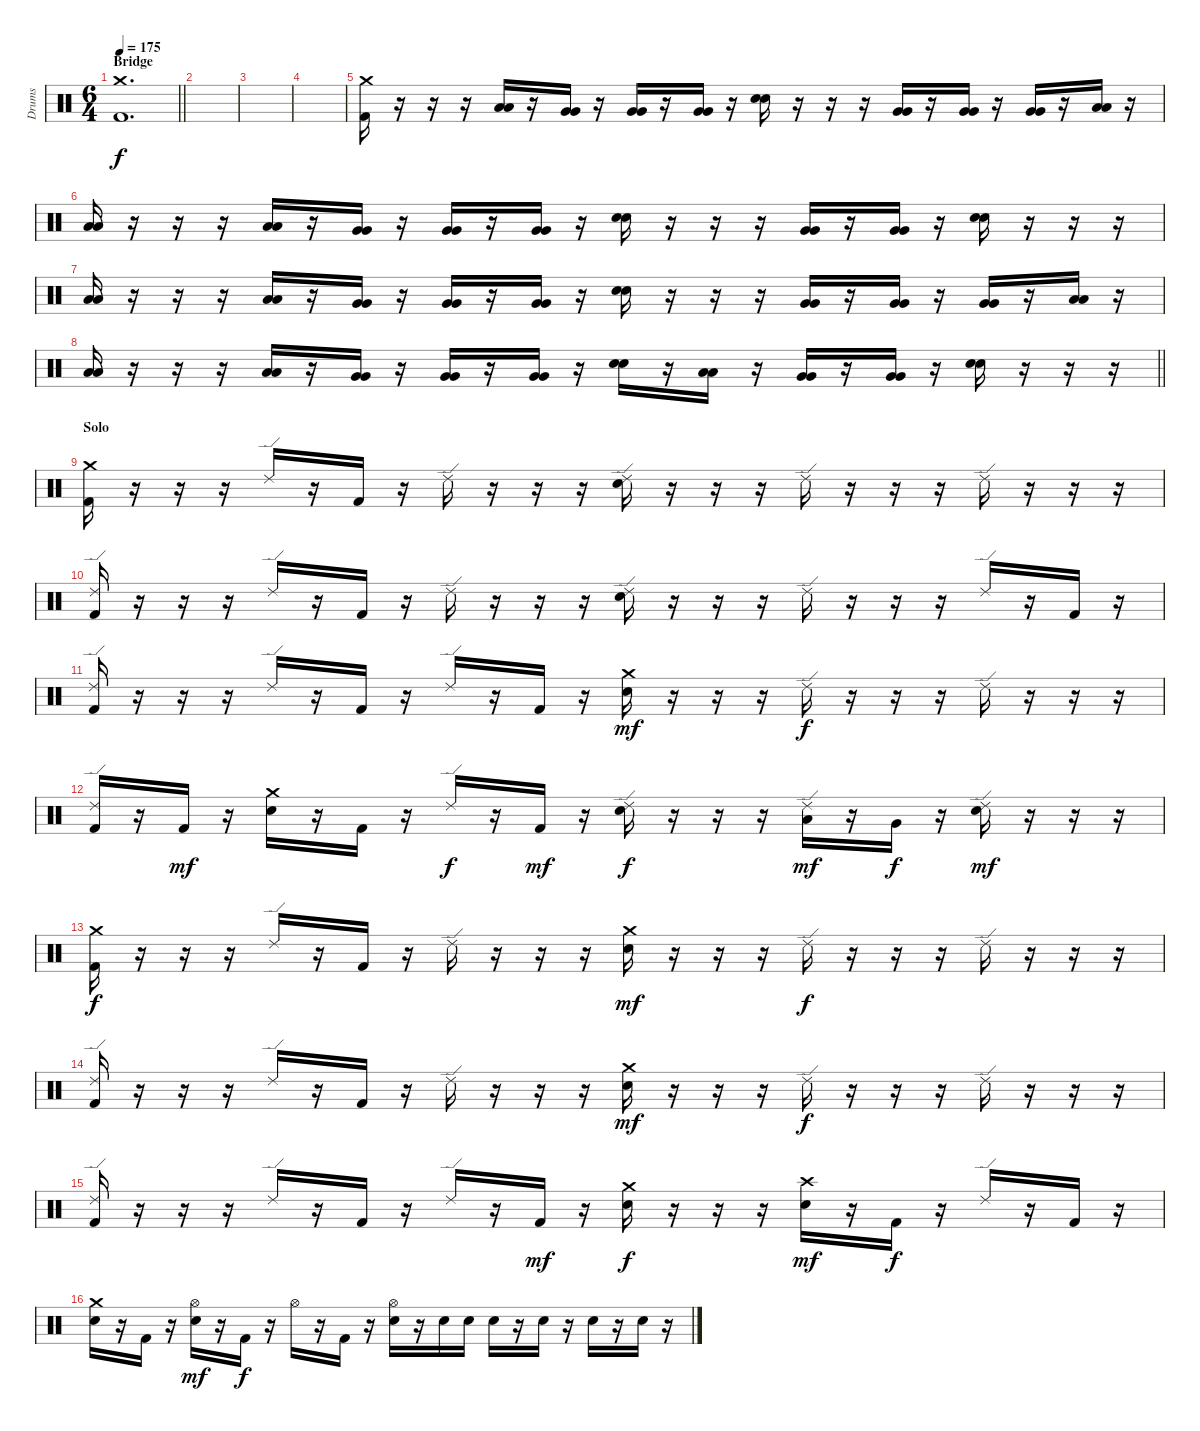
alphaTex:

\track ("Drums" "Drums") {instrument percussion}
\staff {score}
\articulation defaults
\ts (6 4)
\section ("" "Bridge")
\tempo 175
\clef neutral
\barLineRight lightlight
\ks c
("Crash medium (hit)" "Kick (hit) 2").1{d dy f} |
|
|
|
("Crash medium (hit)" "Kick (hit) 2").16 r.16 r.16 r.16 ("Low Tom (hit)" "Low Tom (hit)").16 r.16 ("Very Low Tom (hit)" "Very Low Tom (hit)").16 r.16 ("Very Low Tom (hit)" "Very Low Tom (hit)").16 r.16 ("Very Low Tom (hit)" "Very Low Tom (hit)").16 r.16 ("Electric Snare (hit)" "Electric Snare (hit)").16 r.16 r.16 r.16 ("Very Low Tom (hit)" "Very Low Tom (hit)").16 r.16 ("Very Low Tom (hit)" "Very Low Tom (hit)").16 r.16 ("Very Low Tom (hit)" "Very Low Tom (hit)").16 r.16 ("Low Tom (hit)" "Low Tom (hit)").16 r.16 |
("Low Tom (hit)" "Low Tom (hit)").16 r.16 r.16 r.16 ("Low Tom (hit)" "Low Tom (hit)").16 r.16 ("Very Low Tom (hit)" "Very Low Tom (hit)").16 r.16 ("Very Low Tom (hit)" "Very Low Tom (hit)").16 r.16 ("Very Low Tom (hit)" "Very Low Tom (hit)").16 r.16 ("Electric Snare (hit)" "Electric Snare (hit)").16 r.16 r.16 r.16 ("Very Low Tom (hit)" "Very Low Tom (hit)").16 r.16 ("Very Low Tom (hit)" "Very Low Tom (hit)").16 r.16 ("Electric Snare (hit)" "Electric Snare (hit)").16 r.16 r.16 r.16 |
("Low Tom (hit)" "Low Tom (hit)").16 r.16 r.16 r.16 ("Low Tom (hit)" "Low Tom (hit)").16 r.16 ("Very Low Tom (hit)" "Very Low Tom (hit)").16 r.16 ("Very Low Tom (hit)" "Very Low Tom (hit)").16 r.16 ("Very Low Tom (hit)" "Very Low Tom (hit)").16 r.16 ("Electric Snare (hit)" "Electric Snare (hit)").16 r.16 r.16 r.16 ("Very Low Tom (hit)" "Very Low Tom (hit)").16 r.16 ("Very Low Tom (hit)" "Very Low Tom (hit)").16 r.16 ("Very Low Tom (hit)" "Very Low Tom (hit)").16 r.16 ("Low Tom (hit)" "Low Tom (hit)").16 r.16 |
\barLineRight lightlight
("Low Tom (hit)" "Low Tom (hit)").16 r.16 r.16 r.16 ("Low Tom (hit)" "Low Tom (hit)").16 r.16 ("Very Low Tom (hit)" "Very Low Tom (hit)").16 r.16 ("Very Low Tom (hit)" "Very Low Tom (hit)").16 r.16 ("Very Low Tom (hit)" "Very Low Tom (hit)").16 r.16 ("Electric Snare (hit)" "Electric Snare (hit)").16 r.16 ("Low Tom (hit)" "Low Tom (hit)").16 r.16 ("Very Low Tom (hit)" "Very Low Tom (hit)").16 r.16 ("Very Low Tom (hit)" "Very Low Tom (hit)").16 r.16 ("Electric Snare (hit)" "Electric Snare (hit)").16 r.16 r.16 r.16 |
\section ("" "Solo")
("Crash medium (hit)" "Kick (hit) 2").16 r.16 r.16 r.16 "Ride (edge) 2".16 r.16 "Kick (hit) 2".16 r.16 "Ride (edge) 2".16 r.16 r.16 r.16 ("Ride (edge) 2" "Electric Snare (hit)").16 r.16 r.16 r.16 "Ride (edge) 2".16 r.16 r.16 r.16 "Ride (edge) 2".16 r.16 r.16 r.16 |
("Ride (edge) 2" "Kick (hit) 2").16 r.16 r.16 r.16 "Ride (edge) 2".16 r.16 "Kick (hit) 2".16 r.16 "Ride (edge) 2".16 r.16 r.16 r.16 ("Ride (edge) 2" "Electric Snare (hit)").16 r.16 r.16 r.16 "Ride (edge) 2".16 r.16 r.16 r.16 "Ride (edge) 2".16 r.16 "Kick (hit) 2".16 r.16 |
("Ride (edge) 2" "Kick (hit) 2").16 r.16 r.16 r.16 "Ride (edge) 2".16 r.16 "Kick (hit) 2".16 r.16 "Ride (edge) 2".16 r.16 "Kick (hit) 2".16 r.16 ("Crash medium (hit)" "Electric Snare (hit)").16{dy mf} r.16 r.16 r.16 "Ride (edge) 2".16{dy f} r.16 r.16 r.16 "Ride (edge) 2".16 r.16 r.16 r.16 |
("Ride (edge) 2" "Kick (hit) 2").16 r.16 "Kick (hit) 2".16{dy mf} r.16 ("Crash medium (hit)" "Electric Snare (hit)").16 r.16 "Kick (hit) 2".16 r.16 "Ride (edge) 2".16{dy f} r.16 "Kick (hit) 2".16{dy mf} r.16 ("Ride (edge) 2" "Electric Snare (hit)").16{dy f} r.16 r.16 r.16 ("Ride (edge) 2" "Low Tom (hit)").16{dy mf} r.16 "Very Low Tom (hit)".16{dy f} r.16 ("Ride (edge) 2" "Electric Snare (hit)").16{dy mf} r.16 r.16 r.16 |
("Crash medium (hit)" "Kick (hit) 2").16{dy f} r.16 r.16 r.16 "Ride (edge) 2".16 r.16 "Kick (hit) 2".16 r.16 "Ride (edge) 2".16 r.16 r.16 r.16 ("Crash medium (hit)" "Electric Snare (hit)").16{dy mf} r.16 r.16 r.16 "Ride (edge) 2".16{dy f} r.16 r.16 r.16 "Ride (edge) 2".16 r.16 r.16 r.16 |
("Ride (edge) 2" "Kick (hit) 2").16 r.16 r.16 r.16 "Ride (edge) 2".16 r.16 "Kick (hit) 2".16 r.16 "Ride (edge) 2".16 r.16 r.16 r.16 ("Crash medium (hit)" "Electric Snare (hit)").16{dy mf} r.16 r.16 r.16 "Ride (edge) 2".16{dy f} r.16 r.16 r.16 "Ride (edge) 2".16 r.16 r.16 r.16 |
("Ride (edge) 2" "Kick (hit) 2").16 r.16 r.16 r.16 "Ride (edge) 2".16 r.16 "Kick (hit) 2".16 r.16 "Ride (edge) 2".16 r.16 "Kick (hit) 2".16{dy mf} r.16 ("Crash medium (hit)" "Electric Snare (hit)").16{dy f} r.16 r.16 r.16 ("Crash high (hit)" "Electric Snare (hit)").16{dy mf} r.16 "Kick (hit) 2".16{dy f} r.16 "Ride (edge) 2".16 r.16 "Kick (hit) 2".16 r.16 |
("Crash medium (hit)" "Electric Snare (hit)").16 r.16 "Kick (hit) 2".16 r.16 ("Hi-Hat (open)" "Electric Snare (hit)").16{dy mf} r.16 "Kick (hit) 2".16{dy f} r.16 "Hi-Hat (open)".16 r.16 "Kick (hit) 2".16 r.16 ("Hi-Hat (open)" "Electric Snare (hit)").16 r.16 "Electric Snare (hit)".16 "Electric Snare (hit)".16 "Electric Snare (hit)".16 r.16 "Electric Snare (hit)".16 r.16 "Electric Snare (hit)".16 r.16 "Electric Snare (hit)".16 r.16
